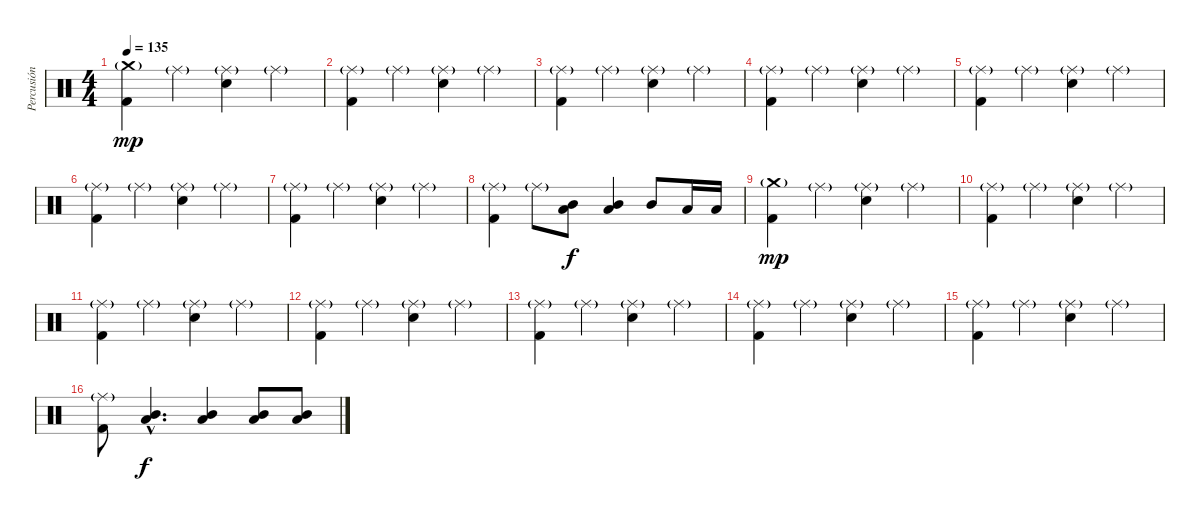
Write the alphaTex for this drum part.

\track ("Percusión" "Percusión") {instrument percussion}
\staff {score}
\articulation defaults
\ts (4 4)
\tempo 135
\clef neutral
\ks c
("Kick (hit) 2" "Crash medium (hit)"{g}).4{dy mp} "Ride (middle)"{g}.4 ("Snare (hit) 2" "Ride (middle)"{g}).4 "Ride (middle)"{g}.4 |
("Kick (hit) 2" "Ride (middle)"{g}).4 "Ride (middle)"{g}.4 ("Snare (hit) 2" "Ride (middle)"{g}).4 "Ride (middle)"{g}.4 |
("Kick (hit) 2" "Ride (middle)"{g}).4 "Ride (middle)"{g}.4 ("Snare (hit) 2" "Ride (middle)"{g}).4 "Ride (middle)"{g}.4 |
("Kick (hit) 2" "Ride (middle)"{g}).4 "Ride (middle)"{g}.4 ("Snare (hit) 2" "Ride (middle)"{g}).4 "Ride (middle)"{g}.4 |
("Kick (hit) 2" "Ride (middle)"{g}).4 "Ride (middle)"{g}.4 ("Snare (hit) 2" "Ride (middle)"{g}).4 "Ride (middle)"{g}.4 |
("Kick (hit) 2" "Ride (middle)"{g}).4 "Ride (middle)"{g}.4 ("Snare (hit) 2" "Ride (middle)"{g}).4 "Ride (middle)"{g}.4 |
("Kick (hit) 2" "Ride (middle)"{g}).4 "Ride (middle)"{g}.4 ("Snare (hit) 2" "Ride (middle)"{g}).4 "Ride (middle)"{g}.4 |
("Kick (hit) 2" "Ride (middle)"{g}).4 "Ride (middle)"{g}.8 ("Mid Tom (hit)" "Low Tom (hit)").8{dy f} ("Mid Tom (hit)" "Low Tom (hit)").4 "Mid Tom (hit)".8 "Low Tom (hit)".16 "Low Floor Tom (hit)".16 |
("Kick (hit) 2" "Crash medium (hit)"{g}).4{dy mp} "Ride (middle)"{g}.4 ("Snare (hit) 2" "Ride (middle)"{g}).4 "Ride (middle)"{g}.4 |
("Kick (hit) 2" "Ride (middle)"{g}).4 "Ride (middle)"{g}.4 ("Snare (hit) 2" "Ride (middle)"{g}).4 "Ride (middle)"{g}.4 |
("Kick (hit) 2" "Ride (middle)"{g}).4 "Ride (middle)"{g}.4 ("Snare (hit) 2" "Ride (middle)"{g}).4 "Ride (middle)"{g}.4 |
("Kick (hit) 2" "Ride (middle)"{g}).4 "Ride (middle)"{g}.4 ("Snare (hit) 2" "Ride (middle)"{g}).4 "Ride (middle)"{g}.4 |
("Kick (hit) 2" "Ride (middle)"{g}).4 "Ride (middle)"{g}.4 ("Snare (hit) 2" "Ride (middle)"{g}).4 "Ride (middle)"{g}.4 |
("Kick (hit) 2" "Ride (middle)"{g}).4 "Ride (middle)"{g}.4 ("Snare (hit) 2" "Ride (middle)"{g}).4 "Ride (middle)"{g}.4 |
("Kick (hit) 2" "Ride (middle)"{g}).4 "Ride (middle)"{g}.4 ("Snare (hit) 2" "Ride (middle)"{g}).4 "Ride (middle)"{g}.4 |
("Kick (hit) 2" "Ride (middle)"{g}).8 ("Mid Tom (hit)"{hac} "Low Tom (hit)"{hac}).4{d dy f} ("Mid Tom (hit)" "Low Tom (hit)").4 ("Low Tom (hit)" "Mid Tom (hit)").8 ("Mid Tom (hit)" "Low Tom (hit)").8
